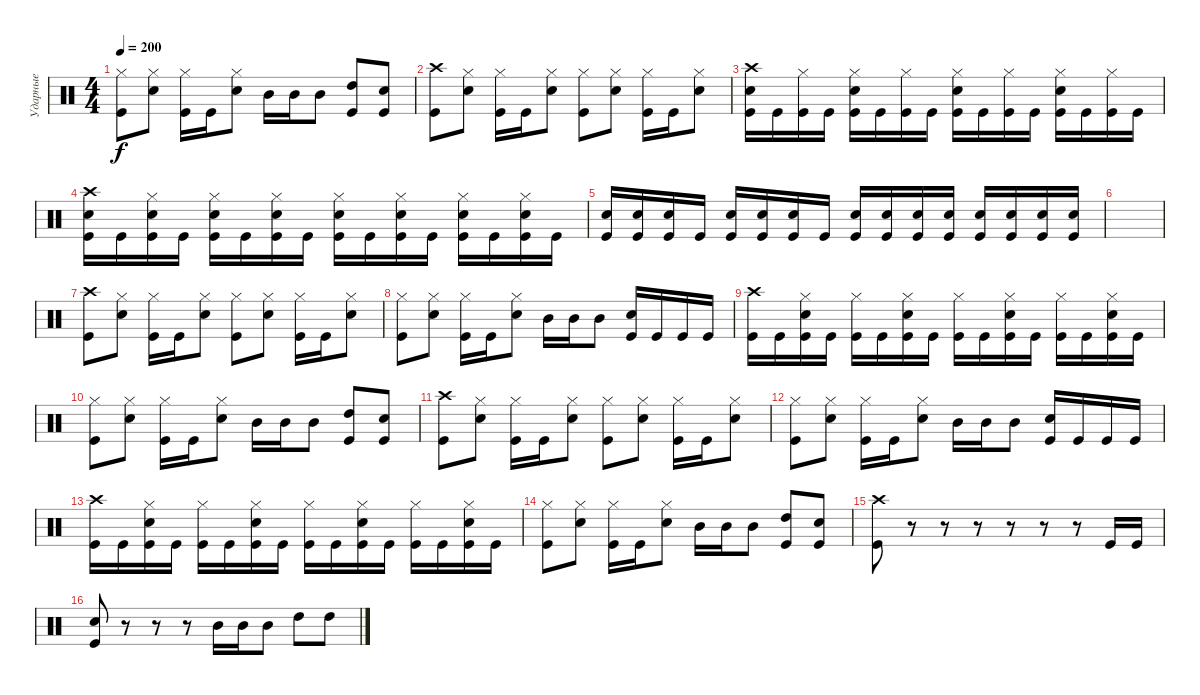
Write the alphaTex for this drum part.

\track ("Ударные" "Ударные") {instrument percussion}
\staff {score}
\articulation defaults
\ts (4 4)
\tempo 200
\clef neutral
\ks c
("Hi-Hat (closed)" "Kick (hit)").8{dy f} ("Hi-Hat (closed)" "Electric Snare (hit)").8 ("Hi-Hat (closed)" "Kick (hit)").16 "Kick (hit)".16 ("Hi-Hat (closed)" "Electric Snare (hit)").8 "Mid Tom (hit)".16 "Mid Tom (hit)".16 "Mid Tom (hit)".8 ("High Tom (hit)" "Kick (hit)").8 ("Electric Snare (hit)" "Kick (hit)").8 |
("Crash high (hit)" "Kick (hit)").8 ("Hi-Hat (closed)" "Electric Snare (hit)").8 ("Hi-Hat (closed)" "Kick (hit)").16 "Kick (hit)".16 ("Hi-Hat (closed)" "Electric Snare (hit)").8 ("Hi-Hat (closed)" "Kick (hit)").8 ("Hi-Hat (closed)" "Electric Snare (hit)").8 ("Hi-Hat (closed)" "Kick (hit)").16 "Kick (hit)".16 ("Hi-Hat (closed)" "Electric Snare (hit)").8 |
("Crash high (hit)" "Electric Snare (hit)" "Kick (hit)").16 "Kick (hit)".16 ("Hi-Hat (closed)" "Kick (hit)").16 "Kick (hit)".16 ("Hi-Hat (closed)" "Electric Snare (hit)" "Kick (hit)").16 "Kick (hit)".16 ("Hi-Hat (closed)" "Kick (hit)").16 "Kick (hit)".16 ("Hi-Hat (closed)" "Electric Snare (hit)" "Kick (hit)").16 "Kick (hit)".16 ("Hi-Hat (closed)" "Kick (hit)").16 "Kick (hit)".16 ("Hi-Hat (closed)" "Electric Snare (hit)" "Kick (hit)").16 "Kick (hit)".16 ("Hi-Hat (closed)" "Kick (hit)").16 "Kick (hit)".16 |
("Crash high (hit)" "Electric Snare (hit)" "Kick (hit)").16 "Kick (hit)".16 ("Hi-Hat (closed)" "Electric Snare (hit)" "Kick (hit)").16 "Kick (hit)".16 ("Hi-Hat (closed)" "Electric Snare (hit)" "Kick (hit)").16 "Kick (hit)".16 ("Hi-Hat (closed)" "Electric Snare (hit)" "Kick (hit)").16 "Kick (hit)".16 ("Hi-Hat (closed)" "Electric Snare (hit)" "Kick (hit)").16 "Kick (hit)".16 ("Hi-Hat (closed)" "Electric Snare (hit)" "Kick (hit)").16 "Kick (hit)".16 ("Hi-Hat (closed)" "Electric Snare (hit)" "Kick (hit)").16 "Kick (hit)".16 ("Hi-Hat (closed)" "Electric Snare (hit)" "Kick (hit)").16 "Kick (hit)".16 |
("Electric Snare (hit)" "Kick (hit)").16 ("Electric Snare (hit)" "Kick (hit)").16 ("Electric Snare (hit)" "Kick (hit)").16 "Kick (hit)".16 ("Electric Snare (hit)" "Kick (hit)").16 ("Electric Snare (hit)" "Kick (hit)").16 ("Electric Snare (hit)" "Kick (hit)").16 "Kick (hit)".16 ("Electric Snare (hit)" "Kick (hit)").16 ("Electric Snare (hit)" "Kick (hit)").16 ("Electric Snare (hit)" "Kick (hit)").16 ("Electric Snare (hit)" "Kick (hit)").16 ("Electric Snare (hit)" "Kick (hit)").16 ("Electric Snare (hit)" "Kick (hit)").16 ("Electric Snare (hit)" "Kick (hit)").16 ("Electric Snare (hit)" "Kick (hit)").16 |
|
("Crash high (hit)" "Kick (hit)").8 ("Hi-Hat (closed)" "Electric Snare (hit)").8 ("Hi-Hat (closed)" "Kick (hit)").16 "Kick (hit)".16 ("Hi-Hat (closed)" "Electric Snare (hit)").8 ("Hi-Hat (closed)" "Kick (hit)").8 ("Hi-Hat (closed)" "Electric Snare (hit)").8 ("Hi-Hat (closed)" "Kick (hit)").16 "Kick (hit)".16 ("Hi-Hat (closed)" "Electric Snare (hit)").8 |
("Hi-Hat (closed)" "Kick (hit)").8 ("Hi-Hat (closed)" "Electric Snare (hit)").8 ("Hi-Hat (closed)" "Kick (hit)").16 "Kick (hit)".16 ("Hi-Hat (closed)" "Electric Snare (hit)").8 "Mid Tom (hit)".16 "Mid Tom (hit)".16 "Mid Tom (hit)".8 ("Electric Snare (hit)" "Kick (hit)").16 "Kick (hit)".16 "Kick (hit)".16 "Kick (hit)".16 |
("Crash high (hit)" "Kick (hit)").16 "Kick (hit)".16 ("Hi-Hat (closed)" "Electric Snare (hit)" "Kick (hit)").16 "Kick (hit)".16 ("Hi-Hat (closed)" "Kick (hit)").16 "Kick (hit)".16 ("Hi-Hat (closed)" "Electric Snare (hit)" "Kick (hit)").16 "Kick (hit)".16 ("Hi-Hat (closed)" "Kick (hit)").16 "Kick (hit)".16 ("Hi-Hat (closed)" "Electric Snare (hit)" "Kick (hit)").16 "Kick (hit)".16 ("Hi-Hat (closed)" "Kick (hit)").16 "Kick (hit)".16 ("Hi-Hat (closed)" "Electric Snare (hit)" "Kick (hit)").16 "Kick (hit)".16 |
("Hi-Hat (closed)" "Kick (hit)").8 ("Hi-Hat (closed)" "Electric Snare (hit)").8 ("Hi-Hat (closed)" "Kick (hit)").16 "Kick (hit)".16 ("Hi-Hat (closed)" "Electric Snare (hit)").8 "Mid Tom (hit)".16 "Mid Tom (hit)".16 "Mid Tom (hit)".8 ("High Tom (hit)" "Kick (hit)").8 ("Electric Snare (hit)" "Kick (hit)").8 |
("Crash high (hit)" "Kick (hit)").8 ("Hi-Hat (closed)" "Electric Snare (hit)").8 ("Hi-Hat (closed)" "Kick (hit)").16 "Kick (hit)".16 ("Hi-Hat (closed)" "Electric Snare (hit)").8 ("Hi-Hat (closed)" "Kick (hit)").8 ("Hi-Hat (closed)" "Electric Snare (hit)").8 ("Hi-Hat (closed)" "Kick (hit)").16 "Kick (hit)".16 ("Hi-Hat (closed)" "Electric Snare (hit)").8 |
("Hi-Hat (closed)" "Kick (hit)").8 ("Hi-Hat (closed)" "Electric Snare (hit)").8 ("Hi-Hat (closed)" "Kick (hit)").16 "Kick (hit)".16 ("Hi-Hat (closed)" "Electric Snare (hit)").8 "Mid Tom (hit)".16 "Mid Tom (hit)".16 "Mid Tom (hit)".8 ("Electric Snare (hit)" "Kick (hit)").16 "Kick (hit)".16 "Kick (hit)".16 "Kick (hit)".16 |
("Crash high (hit)" "Kick (hit)").16 "Kick (hit)".16 ("Hi-Hat (closed)" "Electric Snare (hit)" "Kick (hit)").16 "Kick (hit)".16 ("Hi-Hat (closed)" "Kick (hit)").16 "Kick (hit)".16 ("Hi-Hat (closed)" "Electric Snare (hit)" "Kick (hit)").16 "Kick (hit)".16 ("Hi-Hat (closed)" "Kick (hit)").16 "Kick (hit)".16 ("Hi-Hat (closed)" "Electric Snare (hit)" "Kick (hit)").16 "Kick (hit)".16 ("Hi-Hat (closed)" "Kick (hit)").16 "Kick (hit)".16 ("Hi-Hat (closed)" "Electric Snare (hit)" "Kick (hit)").16 "Kick (hit)".16 |
("Hi-Hat (closed)" "Kick (hit)").8 ("Hi-Hat (closed)" "Electric Snare (hit)").8 ("Hi-Hat (closed)" "Kick (hit)").16 "Kick (hit)".16 ("Hi-Hat (closed)" "Electric Snare (hit)").8 "Mid Tom (hit)".16 "Mid Tom (hit)".16 "Mid Tom (hit)".8 ("High Tom (hit)" "Kick (hit)").8 ("Electric Snare (hit)" "Kick (hit)").8 |
("Crash high (hit)" "Kick (hit)").8 r.8 r.8 r.8 r.8 r.8 r.8 "Kick (hit)".16 "Kick (hit)".16 |
("Electric Snare (hit)" "Kick (hit)").8 r.8 r.8 r.8 "Mid Tom (hit)".16 "Mid Tom (hit)".16 "Mid Tom (hit)".8 "High Tom (hit)".8 "High Tom (hit)".8
